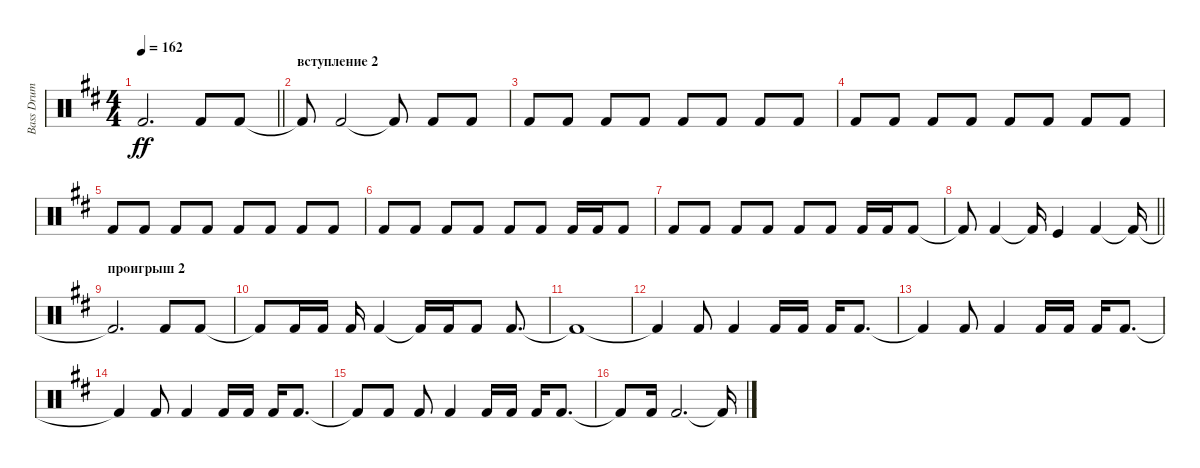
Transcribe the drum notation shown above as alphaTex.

\track ("Bass Drum" "Bass Drum") {instrument percussion}
\staff {score}
\articulation defaults
\ts (4 4)
\tempo 162
\clef neutral
\barLineRight lightlight
\ks bminor "Kick (hit) 2"{t}.2{d dy ff} "Kick (hit) 2".8 "Kick (hit) 2".8
|
\section ("" "вступление 2")
"Kick (hit) 2"{t}.8 "Kick (hit) 2".2 "Kick (hit) 2"{t}.8 "Kick (hit) 2".8 "Kick (hit) 2".8 |
"Kick (hit) 2".8 "Kick (hit) 2".8 "Kick (hit) 2".8 "Kick (hit) 2".8 "Kick (hit) 2".8 "Kick (hit) 2".8 "Kick (hit) 2".8 "Kick (hit) 2".8 |
"Kick (hit) 2".8 "Kick (hit) 2".8 "Kick (hit) 2".8 "Kick (hit) 2".8 "Kick (hit) 2".8 "Kick (hit) 2".8 "Kick (hit) 2".8 "Kick (hit) 2".8 |
"Kick (hit) 2".8 "Kick (hit) 2".8 "Kick (hit) 2".8 "Kick (hit) 2".8 "Kick (hit) 2".8 "Kick (hit) 2".8 "Kick (hit) 2".8 "Kick (hit) 2".8 |
"Kick (hit) 2".8 "Kick (hit) 2".8 "Kick (hit) 2".8 "Kick (hit) 2".8 "Kick (hit) 2".8 "Kick (hit) 2".8 "Kick (hit) 2".16 "Kick (hit) 2".16 "Kick (hit) 2".8 |
"Kick (hit) 2".8 "Kick (hit) 2".8 "Kick (hit) 2".8 "Kick (hit) 2".8 "Kick (hit) 2".8 "Kick (hit) 2".8 "Kick (hit) 2".16 "Kick (hit) 2".16 "Kick (hit) 2".8 |
\barLineRight lightlight "Kick (hit) 2"{t}.8 "Kick (hit) 2".4 "Kick (hit) 2"{t}.16 "Kick (hit)".4 "Kick (hit) 2".4 "Kick (hit) 2"{t}.16
|
\section ("" "проигрыш 2")
"Kick (hit) 2"{t}.2{d} "Kick (hit) 2".8 "Kick (hit) 2".8 |
"Kick (hit) 2"{t}.8 "Kick (hit) 2".16 "Kick (hit) 2".16 "Kick (hit) 2".16 "Kick (hit) 2".4 "Kick (hit) 2"{t}.16 "Kick (hit) 2".16 "Kick (hit) 2".8 "Kick (hit) 2".8{d} |
"Kick (hit) 2"{t}.1 |
"Kick (hit) 2"{t}.4 "Kick (hit) 2".8 "Kick (hit) 2".4 "Kick (hit) 2".16 "Kick (hit) 2".16 "Kick (hit) 2".16 "Kick (hit) 2".8{d} |
"Kick (hit) 2"{t}.4 "Kick (hit) 2".8 "Kick (hit) 2".4 "Kick (hit) 2".16 "Kick (hit) 2".16 "Kick (hit) 2".16 "Kick (hit) 2".8{d} |
"Kick (hit) 2"{t}.4 "Kick (hit) 2".8 "Kick (hit) 2".4 "Kick (hit) 2".16 "Kick (hit) 2".16 "Kick (hit) 2".16 "Kick (hit) 2".8{d} |
"Kick (hit) 2"{t}.8 "Kick (hit) 2".8 "Kick (hit) 2".8 "Kick (hit) 2".4 "Kick (hit) 2".16 "Kick (hit) 2".16 "Kick (hit) 2".16 "Kick (hit) 2".8{d} |
"Kick (hit) 2"{t}.8 "Kick (hit) 2".16 "Kick (hit) 2".2{d} "Kick (hit) 2"{t}.16
